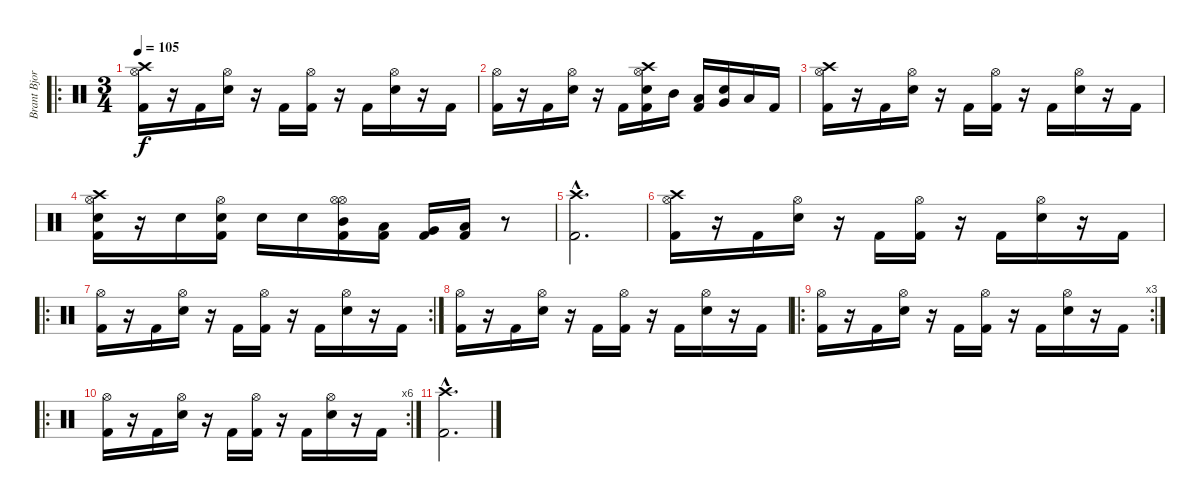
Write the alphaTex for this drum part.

\track ("Brant Bjork" "Brant Bjor") {instrument percussion}
\staff {score}
\articulation defaults
\ro
\ts (3 4)
\tempo 105
\clef neutral
\ks c
("Crash high (hit)" "Hi-Hat (open)" "Kick (hit) 2").16{dy f} r.16 "Kick (hit) 2".16 ("Electric Snare (hit)" "Hi-Hat (open)").16 r.16 "Kick (hit) 2".16 ("Hi-Hat (open)" "Kick (hit) 2").16 r.16 "Kick (hit) 2".16 ("Electric Snare (hit)" "Hi-Hat (open)").16 r.16 "Kick (hit) 2".16 |
("Hi-Hat (open)" "Kick (hit) 2").16 r.16 "Kick (hit) 2".16 ("Electric Snare (hit)" "Hi-Hat (open)").16 r.16 "Kick (hit) 2".16 ("Crash high (hit)" "Electric Snare (hit)" "Hi-Hat (open)" "Kick (hit) 2").16 "Mid Tom (hit)".16 ("Low Tom (hit)" "Kick (hit) 2").16 ("Electric Snare (hit)" "Very Low Tom (hit)").16 "Low Floor Tom (hit)".16 "Kick (hit) 2".16 |
("Crash high (hit)" "Hi-Hat (open)" "Kick (hit) 2").16 r.16 "Kick (hit) 2".16 ("Electric Snare (hit)" "Hi-Hat (open)").16 r.16 "Kick (hit) 2".16 ("Hi-Hat (open)" "Kick (hit) 2").16 r.16 "Kick (hit) 2".16 ("Electric Snare (hit)" "Hi-Hat (open)").16 r.16 "Kick (hit) 2".16 |
("Crash high (hit)" "Electric Snare (hit)" "Hi-Hat (open)" "Kick (hit) 2").16 r.16 "Electric Snare (hit)".16 ("Electric Snare (hit)" "Hi-Hat (open)" "Kick (hit) 2").16 "Electric Snare (hit)".16 "Electric Snare (hit)".16 ("Mid Tom (hit)" "Hi-Hat (open)" "Hi-Hat (open)" "Kick (hit) 2").16 ("Low Tom (hit)" "Kick (hit) 2").16 ("Very Low Tom (hit)" "Kick (hit) 2").16 ("Low Floor Tom (hit)" "Kick (hit) 2").16 r.8 |
("Crash high (hit)"{hac} "Kick (hit) 2"{hac}).2{d} |
("Crash high (hit)" "Hi-Hat (open)" "Kick (hit) 2").16 r.16 "Kick (hit) 2".16 ("Electric Snare (hit)" "Hi-Hat (open)").16 r.16 "Kick (hit) 2".16 ("Hi-Hat (open)" "Kick (hit) 2").16 r.16 "Kick (hit) 2".16 ("Electric Snare (hit)" "Hi-Hat (open)").16 r.16 "Kick (hit) 2".16 |
\ro
\rc 2
("Hi-Hat (open)" "Kick (hit) 2").16 r.16 "Kick (hit) 2".16 ("Electric Snare (hit)" "Hi-Hat (open)").16 r.16 "Kick (hit) 2".16 ("Hi-Hat (open)" "Kick (hit) 2").16 r.16 "Kick (hit) 2".16 ("Electric Snare (hit)" "Hi-Hat (open)").16 r.16 "Kick (hit) 2".16 |
("Hi-Hat (open)" "Kick (hit) 2").16 r.16 "Kick (hit) 2".16 ("Electric Snare (hit)" "Hi-Hat (open)").16 r.16 "Kick (hit) 2".16 ("Hi-Hat (open)" "Kick (hit) 2").16 r.16 "Kick (hit) 2".16 ("Electric Snare (hit)" "Hi-Hat (open)").16 r.16 "Kick (hit) 2".16 |
\ro
\rc 3
("Hi-Hat (open)" "Kick (hit) 2").16 r.16 "Kick (hit) 2".16 ("Electric Snare (hit)" "Hi-Hat (open)").16 r.16 "Kick (hit) 2".16 ("Hi-Hat (open)" "Kick (hit) 2").16 r.16 "Kick (hit) 2".16 ("Electric Snare (hit)" "Hi-Hat (open)").16 r.16 "Kick (hit) 2".16 |
\ro
\rc 6
("Hi-Hat (open)" "Kick (hit) 2").16 r.16 "Kick (hit) 2".16 ("Electric Snare (hit)" "Hi-Hat (open)").16 r.16 "Kick (hit) 2".16 ("Hi-Hat (open)" "Kick (hit) 2").16 r.16 "Kick (hit) 2".16 ("Electric Snare (hit)" "Hi-Hat (open)").16 r.16 "Kick (hit) 2".16 |
("Crash high (hit)"{hac} "Kick (hit) 2"{hac}).2{d}
